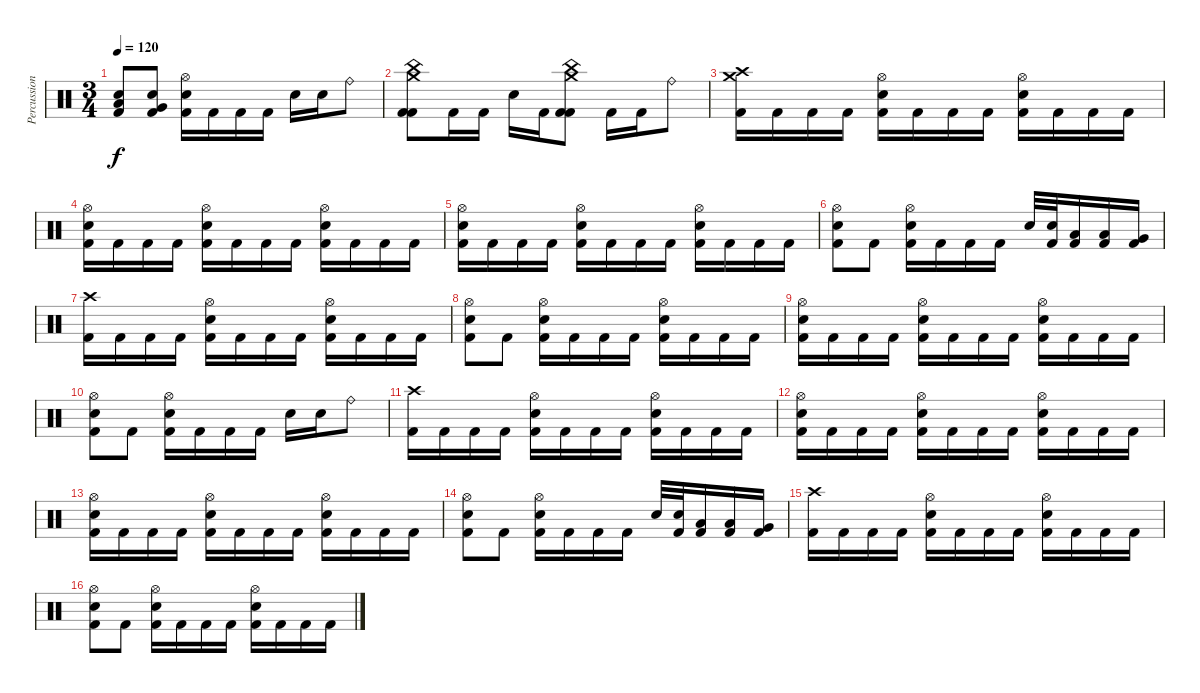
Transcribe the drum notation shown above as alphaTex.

\track ("Percussion" "Percussion") {instrument percussion}
\staff {score}
\articulation defaults
\ts (3 4)
\tempo 120
\clef neutral
\ks c
("Low Tom (hit)" "Electric Snare (hit)" "Kick (hit) 2").8{dy f} ("Very Low Tom (hit)" "Electric Snare (hit)" "Kick (hit) 2").8 ("Hi-Hat (open)" "Electric Snare (hit)" "Kick (hit) 2").16 "Kick (hit) 2".16 "Kick (hit) 2".16 "Kick (hit) 2".16 "Electric Snare (hit)".16 "Electric Snare (hit)".16 "Ride (bell)".8 |
("China (hit)" "Crash medium (hit)" "Kick (hit) 2" "Kick (hit) 2").8 "Kick (hit) 2".16 "Kick (hit) 2".16 "Electric Snare (hit)".16 "Kick (hit) 2".16 ("China (hit)" "Crash medium (hit)" "Kick (hit) 2" "Kick (hit) 2").8 "Kick (hit) 2".16 "Kick (hit) 2".16 "Ride (bell)".8 |
("Crash high (hit)" "Crash medium (hit)" "Kick (hit) 2").16 "Kick (hit) 2".16 "Kick (hit) 2".16 "Kick (hit) 2".16 ("Hi-Hat (open)" "Electric Snare (hit)" "Kick (hit) 2").16 "Kick (hit) 2".16 "Kick (hit) 2".16 "Kick (hit) 2".16 ("Hi-Hat (open)" "Electric Snare (hit)" "Kick (hit) 2").16 "Kick (hit) 2".16 "Kick (hit) 2".16 "Kick (hit) 2".16 |
("Hi-Hat (open)" "Electric Snare (hit)" "Kick (hit) 2").16 "Kick (hit) 2".16 "Kick (hit) 2".16 "Kick (hit) 2".16 ("Hi-Hat (open)" "Electric Snare (hit)" "Kick (hit) 2").16 "Kick (hit) 2".16 "Kick (hit) 2".16 "Kick (hit) 2".16 ("Hi-Hat (open)" "Electric Snare (hit)" "Kick (hit) 2").16 "Kick (hit) 2".16 "Kick (hit) 2".16 "Kick (hit) 2".16 |
("Hi-Hat (open)" "Electric Snare (hit)" "Kick (hit) 2").16 "Kick (hit) 2".16 "Kick (hit) 2".16 "Kick (hit) 2".16 ("Hi-Hat (open)" "Electric Snare (hit)" "Kick (hit) 2").16 "Kick (hit) 2".16 "Kick (hit) 2".16 "Kick (hit) 2".16 ("Hi-Hat (open)" "Electric Snare (hit)" "Kick (hit) 2").16 "Kick (hit) 2".16 "Kick (hit) 2".16 "Kick (hit) 2".16 |
("Hi-Hat (open)" "Electric Snare (hit)" "Kick (hit) 2").8 "Kick (hit) 2".8 ("Hi-Hat (open)" "Electric Snare (hit)" "Kick (hit) 2").16 "Kick (hit) 2".16 "Kick (hit) 2".16 "Kick (hit) 2".16 "Electric Snare (hit)".32 ("Electric Snare (hit)" "Kick (hit) 2").32 ("Low Tom (hit)" "Kick (hit) 2").16 ("Low Tom (hit)" "Kick (hit) 2").16 ("Very Low Tom (hit)" "Kick (hit) 2").16 |
("Crash high (hit)" "Kick (hit) 2").16 "Kick (hit) 2".16 "Kick (hit) 2".16 "Kick (hit) 2".16 ("Hi-Hat (open)" "Electric Snare (hit)" "Kick (hit) 2").16 "Kick (hit) 2".16 "Kick (hit) 2".16 "Kick (hit) 2".16 ("Hi-Hat (open)" "Electric Snare (hit)" "Kick (hit) 2").16 "Kick (hit) 2".16 "Kick (hit) 2".16 "Kick (hit) 2".16 |
("Hi-Hat (open)" "Electric Snare (hit)" "Kick (hit) 2").8 "Kick (hit) 2".8 ("Hi-Hat (open)" "Electric Snare (hit)" "Kick (hit) 2").16 "Kick (hit) 2".16 "Kick (hit) 2".16 "Kick (hit) 2".16 ("Hi-Hat (open)" "Electric Snare (hit)" "Kick (hit) 2").16 "Kick (hit) 2".16 "Kick (hit) 2".16 "Kick (hit) 2".16 |
("Hi-Hat (open)" "Electric Snare (hit)" "Kick (hit) 2").16 "Kick (hit) 2".16 "Kick (hit) 2".16 "Kick (hit) 2".16 ("Hi-Hat (open)" "Electric Snare (hit)" "Kick (hit) 2").16 "Kick (hit) 2".16 "Kick (hit) 2".16 "Kick (hit) 2".16 ("Hi-Hat (open)" "Electric Snare (hit)" "Kick (hit) 2").16 "Kick (hit) 2".16 "Kick (hit) 2".16 "Kick (hit) 2".16 |
("Hi-Hat (open)" "Electric Snare (hit)" "Kick (hit) 2").8 "Kick (hit) 2".8 ("Hi-Hat (open)" "Electric Snare (hit)" "Kick (hit) 2").16 "Kick (hit) 2".16 "Kick (hit) 2".16 "Kick (hit) 2".16 "Electric Snare (hit)".16 "Electric Snare (hit)".16 "Ride (bell)".8 |
("Crash high (hit)" "Kick (hit) 2").16 "Kick (hit) 2".16 "Kick (hit) 2".16 "Kick (hit) 2".16 ("Hi-Hat (open)" "Electric Snare (hit)" "Kick (hit) 2").16 "Kick (hit) 2".16 "Kick (hit) 2".16 "Kick (hit) 2".16 ("Hi-Hat (open)" "Electric Snare (hit)" "Kick (hit) 2").16 "Kick (hit) 2".16 "Kick (hit) 2".16 "Kick (hit) 2".16 |
("Hi-Hat (open)" "Electric Snare (hit)" "Kick (hit) 2").16 "Kick (hit) 2".16 "Kick (hit) 2".16 "Kick (hit) 2".16 ("Hi-Hat (open)" "Electric Snare (hit)" "Kick (hit) 2").16 "Kick (hit) 2".16 "Kick (hit) 2".16 "Kick (hit) 2".16 ("Hi-Hat (open)" "Electric Snare (hit)" "Kick (hit) 2").16 "Kick (hit) 2".16 "Kick (hit) 2".16 "Kick (hit) 2".16 |
("Hi-Hat (open)" "Electric Snare (hit)" "Kick (hit) 2").16 "Kick (hit) 2".16 "Kick (hit) 2".16 "Kick (hit) 2".16 ("Hi-Hat (open)" "Electric Snare (hit)" "Kick (hit) 2").16 "Kick (hit) 2".16 "Kick (hit) 2".16 "Kick (hit) 2".16 ("Hi-Hat (open)" "Electric Snare (hit)" "Kick (hit) 2").16 "Kick (hit) 2".16 "Kick (hit) 2".16 "Kick (hit) 2".16 |
("Hi-Hat (open)" "Electric Snare (hit)" "Kick (hit) 2").8 "Kick (hit) 2".8 ("Hi-Hat (open)" "Electric Snare (hit)" "Kick (hit) 2").16 "Kick (hit) 2".16 "Kick (hit) 2".16 "Kick (hit) 2".16 "Electric Snare (hit)".32 ("Electric Snare (hit)" "Kick (hit) 2").32 ("Low Tom (hit)" "Kick (hit) 2").16 ("Low Tom (hit)" "Kick (hit) 2").16 ("Very Low Tom (hit)" "Kick (hit) 2").16 |
("Crash high (hit)" "Kick (hit) 2").16 "Kick (hit) 2".16 "Kick (hit) 2".16 "Kick (hit) 2".16 ("Hi-Hat (open)" "Electric Snare (hit)" "Kick (hit) 2").16 "Kick (hit) 2".16 "Kick (hit) 2".16 "Kick (hit) 2".16 ("Hi-Hat (open)" "Electric Snare (hit)" "Kick (hit) 2").16 "Kick (hit) 2".16 "Kick (hit) 2".16 "Kick (hit) 2".16 |
("Hi-Hat (open)" "Electric Snare (hit)" "Kick (hit) 2").8 "Kick (hit) 2".8 ("Hi-Hat (open)" "Electric Snare (hit)" "Kick (hit) 2").16 "Kick (hit) 2".16 "Kick (hit) 2".16 "Kick (hit) 2".16 ("Hi-Hat (open)" "Electric Snare (hit)" "Kick (hit) 2").16 "Kick (hit) 2".16 "Kick (hit) 2".16 "Kick (hit) 2".16
